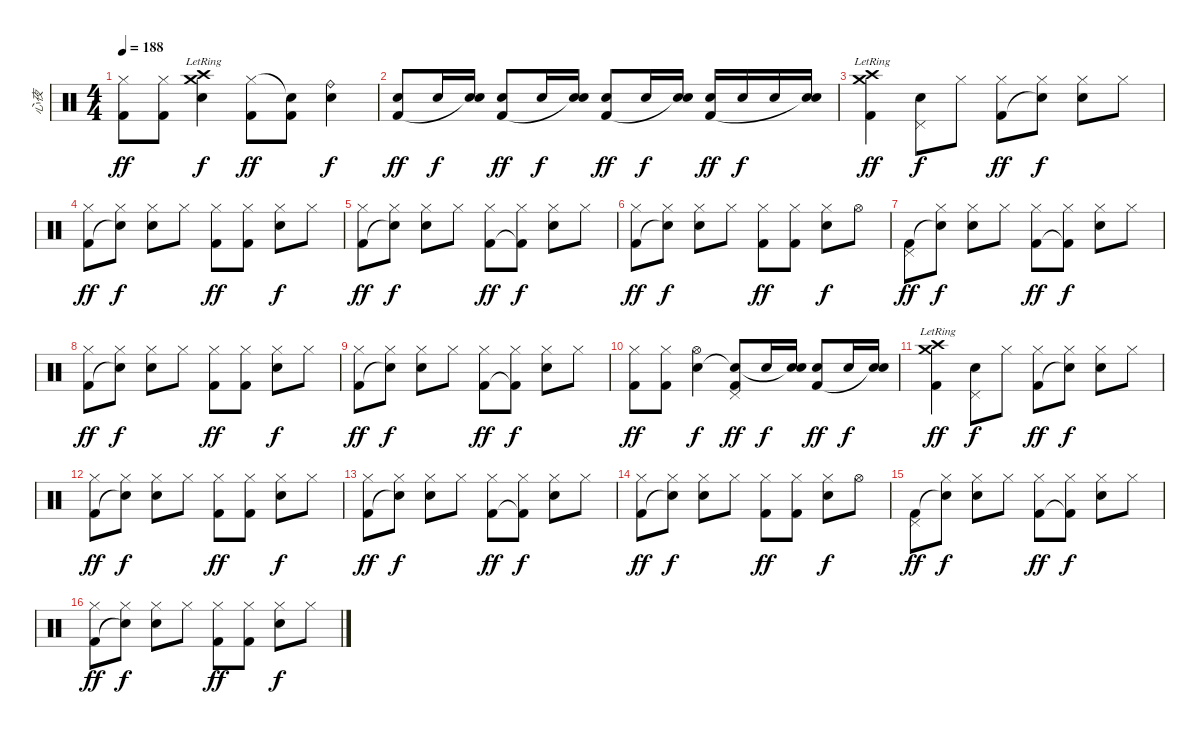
\track ("心夜" "心夜") {instrument percussion}
\staff {score}
\articulation defaults
\ts (4 4)
\tempo 188
\clef neutral
\ks c
("Hi-Hat (closed)" "Kick (hit) 2").8{dy ff} ("Hi-Hat (closed)" "Kick (hit) 2").8 ("Crash medium (hit)"{lr} "Electric Snare (hit)" "Crash high (hit)"{lr}).4{dy f} ("Hi-Hat (closed)" "Kick (hit) 2").8{dy ff} ("Snare (hit)"{t} "Kick (hit) 2").8 ("Ride (bell)" "Electric Snare (hit)").4{dy f} |
("Electric Snare (hit)" "Kick (hit) 2").8{dy ff} "Electric Snare (hit)".16{dy f} ("Electric Snare (hit)" "Snare (hit)"{t}).16 ("Electric Snare (hit)" "Kick (hit) 2").8{dy ff} "Electric Snare (hit)".16{dy f} ("Electric Snare (hit)" "Snare (hit)"{t}).16 ("Electric Snare (hit)" "Kick (hit) 2").8{dy ff} "Electric Snare (hit)".16{dy f} ("Electric Snare (hit)" "Snare (hit)"{t}).16 ("Electric Snare (hit)" "Kick (hit) 2").16{dy ff} "Electric Snare (hit)".16{dy f} "Electric Snare (hit)".16 ("Electric Snare (hit)" "Snare (hit)"{t}).16 |
("Crash medium (hit)"{lr} "Crash high (hit)"{lr} "Kick (hit) 2").4{dy ff} ("Pedal Hi-Hat (hit)" "Electric Snare (hit)").8{dy f} "Hi-Hat (closed)".8 ("Hi-Hat (closed)" "Kick (hit) 2").8{dy ff} ("Hi-Hat (closed)" "Snare (hit)"{t}).8{dy f} ("Hi-Hat (closed)" "Electric Snare (hit)").8 "Hi-Hat (closed)".8 |
("Hi-Hat (closed)" "Kick (hit) 2").8{dy ff} ("Hi-Hat (closed)" "Snare (hit)"{t}).8{dy f} ("Hi-Hat (closed)" "Electric Snare (hit)").8 "Hi-Hat (closed)".8 ("Hi-Hat (closed)" "Kick (hit) 2").8{dy ff} ("Hi-Hat (closed)" "Kick (hit) 2").8 ("Hi-Hat (closed)" "Electric Snare (hit)").8{dy f} "Hi-Hat (closed)".8 |
("Hi-Hat (closed)" "Kick (hit) 2").8{dy ff} ("Hi-Hat (closed)" "Snare (hit)"{t}).8{dy f} ("Hi-Hat (closed)" "Electric Snare (hit)").8 "Hi-Hat (closed)".8 ("Hi-Hat (closed)" "Kick (hit) 2").8{dy ff} ("Hi-Hat (closed)" "Kick (hit) 2"{t}).8{dy f} ("Hi-Hat (closed)" "Electric Snare (hit)").8 "Hi-Hat (closed)".8 |
("Hi-Hat (closed)" "Kick (hit) 2").8{dy ff} ("Hi-Hat (closed)" "Snare (hit)"{t}).8{dy f} ("Hi-Hat (closed)" "Electric Snare (hit)").8 "Hi-Hat (closed)".8 ("Hi-Hat (closed)" "Kick (hit) 2").8{dy ff} ("Hi-Hat (closed)" "Kick (hit) 2").8 ("Hi-Hat (closed)" "Electric Snare (hit)").8{dy f} "Hi-Hat (open)".8 |
("Pedal Hi-Hat (hit)" "Kick (hit) 2").8{dy ff} ("Hi-Hat (closed)" "Snare (hit)"{t}).8{dy f} ("Hi-Hat (closed)" "Electric Snare (hit)").8 "Hi-Hat (closed)".8 ("Hi-Hat (closed)" "Kick (hit) 2").8{dy ff} ("Hi-Hat (closed)" "Kick (hit) 2"{t}).8{dy f} ("Hi-Hat (closed)" "Electric Snare (hit)").8 "Hi-Hat (closed)".8 |
("Hi-Hat (closed)" "Kick (hit) 2").8{dy ff} ("Hi-Hat (closed)" "Snare (hit)"{t}).8{dy f} ("Hi-Hat (closed)" "Electric Snare (hit)").8 "Hi-Hat (closed)".8 ("Hi-Hat (closed)" "Kick (hit) 2").8{dy ff} ("Hi-Hat (closed)" "Kick (hit) 2").8 ("Hi-Hat (closed)" "Electric Snare (hit)").8{dy f} "Hi-Hat (closed)".8 |
("Hi-Hat (closed)" "Kick (hit) 2").8{dy ff} ("Hi-Hat (closed)" "Snare (hit)"{t}).8{dy f} ("Hi-Hat (closed)" "Electric Snare (hit)").8 "Hi-Hat (closed)".8 ("Hi-Hat (closed)" "Kick (hit) 2").8{dy ff} ("Hi-Hat (closed)" "Kick (hit) 2"{t}).8{dy f} ("Hi-Hat (closed)" "Electric Snare (hit)").8 "Hi-Hat (closed)".8 |
("Hi-Hat (closed)" "Kick (hit) 2").8{dy ff} ("Hi-Hat (closed)" "Kick (hit) 2").8 ("Hi-Hat (open)" "Electric Snare (hit)").4{dy f} ("Pedal Hi-Hat (hit)" "Snare (hit)"{t} "Kick (hit) 2").8{dy ff} "Electric Snare (hit)".16{dy f} ("Electric Snare (hit)" "Snare (hit)"{t}).16 ("Electric Snare (hit)" "Kick (hit) 2").8{dy ff} "Electric Snare (hit)".16{dy f} ("Electric Snare (hit)" "Snare (hit)"{t}).16 |
("Crash medium (hit)"{lr} "Crash high (hit)"{lr} "Kick (hit) 2").4{dy ff} ("Pedal Hi-Hat (hit)" "Electric Snare (hit)").8{dy f} "Hi-Hat (closed)".8 ("Hi-Hat (closed)" "Kick (hit) 2").8{dy ff} ("Hi-Hat (closed)" "Snare (hit)"{t}).8{dy f} ("Hi-Hat (closed)" "Electric Snare (hit)").8 "Hi-Hat (closed)".8 |
("Hi-Hat (closed)" "Kick (hit) 2").8{dy ff} ("Hi-Hat (closed)" "Snare (hit)"{t}).8{dy f} ("Hi-Hat (closed)" "Electric Snare (hit)").8 "Hi-Hat (closed)".8 ("Hi-Hat (closed)" "Kick (hit) 2").8{dy ff} ("Hi-Hat (closed)" "Kick (hit) 2").8 ("Hi-Hat (closed)" "Electric Snare (hit)").8{dy f} "Hi-Hat (closed)".8 |
("Hi-Hat (closed)" "Kick (hit) 2").8{dy ff} ("Hi-Hat (closed)" "Snare (hit)"{t}).8{dy f} ("Hi-Hat (closed)" "Electric Snare (hit)").8 "Hi-Hat (closed)".8 ("Hi-Hat (closed)" "Kick (hit) 2").8{dy ff} ("Hi-Hat (closed)" "Kick (hit) 2"{t}).8{dy f} ("Hi-Hat (closed)" "Electric Snare (hit)").8 "Hi-Hat (closed)".8 |
("Hi-Hat (closed)" "Kick (hit) 2").8{dy ff} ("Hi-Hat (closed)" "Snare (hit)"{t}).8{dy f} ("Hi-Hat (closed)" "Electric Snare (hit)").8 "Hi-Hat (closed)".8 ("Hi-Hat (closed)" "Kick (hit) 2").8{dy ff} ("Hi-Hat (closed)" "Kick (hit) 2").8 ("Hi-Hat (closed)" "Electric Snare (hit)").8{dy f} "Hi-Hat (open)".8 |
("Pedal Hi-Hat (hit)" "Kick (hit) 2").8{dy ff} ("Hi-Hat (closed)" "Snare (hit)"{t}).8{dy f} ("Hi-Hat (closed)" "Electric Snare (hit)").8 "Hi-Hat (closed)".8 ("Hi-Hat (closed)" "Kick (hit) 2").8{dy ff} ("Hi-Hat (closed)" "Kick (hit) 2"{t}).8{dy f} ("Hi-Hat (closed)" "Electric Snare (hit)").8 "Hi-Hat (closed)".8 |
("Hi-Hat (closed)" "Kick (hit) 2").8{dy ff} ("Hi-Hat (closed)" "Snare (hit)"{t}).8{dy f} ("Hi-Hat (closed)" "Electric Snare (hit)").8 "Hi-Hat (closed)".8 ("Hi-Hat (closed)" "Kick (hit) 2").8{dy ff} ("Hi-Hat (closed)" "Kick (hit) 2").8 ("Hi-Hat (closed)" "Electric Snare (hit)").8{dy f} "Hi-Hat (closed)".8
